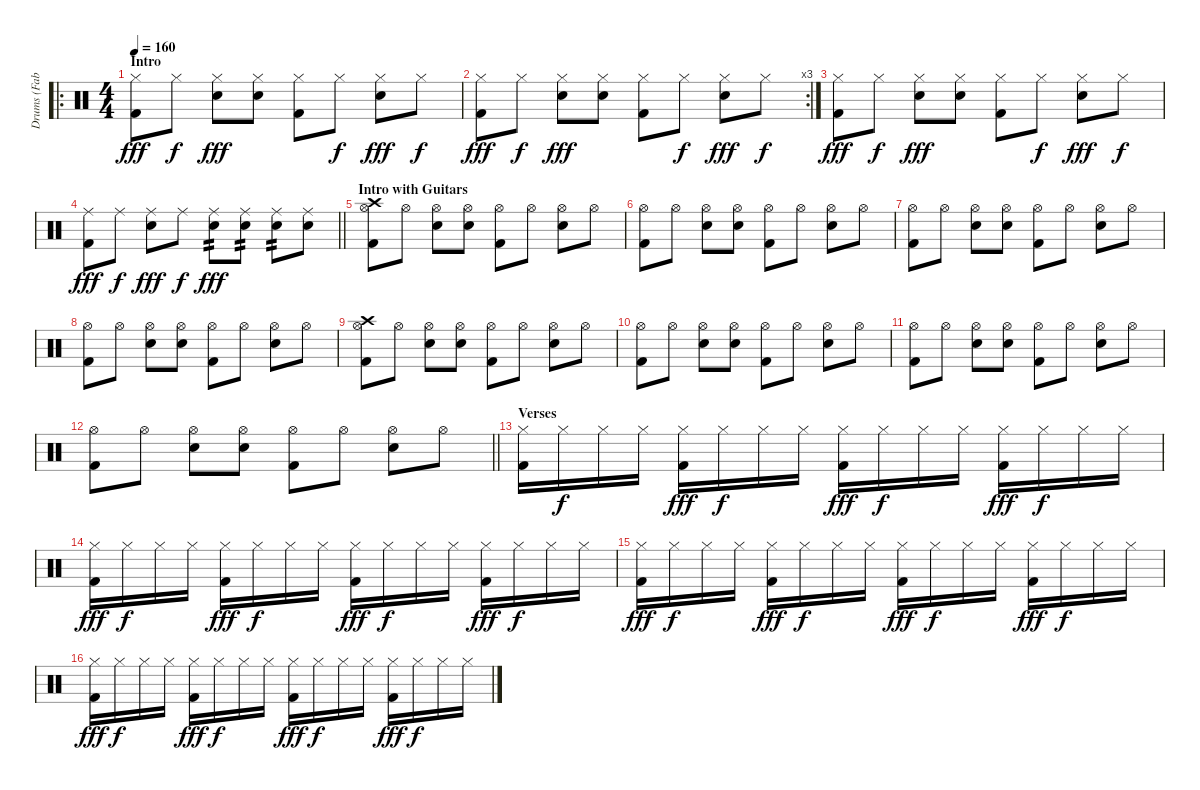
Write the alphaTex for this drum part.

\track ("Drums (Fabrizio Moretti)" "Drums (Fab") {instrument percussion}
\staff {score}
\articulation defaults
\ro
\ts (4 4)
\section ("" "Intro")
\tempo 160
\clef neutral
\ks c
("Kick (hit) 2" "Hi-Hat (closed)").8{dy fff} "Hi-Hat (closed)".8{dy f} ("Electric Snare (hit)" "Hi-Hat (closed)").8{dy fff} ("Electric Snare (hit)" "Hi-Hat (closed)").8 ("Kick (hit) 2" "Hi-Hat (closed)").8 "Hi-Hat (closed)".8{dy f} ("Electric Snare (hit)" "Hi-Hat (closed)").8{dy fff} "Hi-Hat (closed)".8{dy f} |
\rc 3
("Kick (hit) 2" "Hi-Hat (closed)").8{dy fff} "Hi-Hat (closed)".8{dy f} ("Electric Snare (hit)" "Hi-Hat (closed)").8{dy fff} ("Electric Snare (hit)" "Hi-Hat (closed)").8 ("Kick (hit) 2" "Hi-Hat (closed)").8 "Hi-Hat (closed)".8{dy f} ("Electric Snare (hit)" "Hi-Hat (closed)").8{dy fff} "Hi-Hat (closed)".8{dy f} |
("Kick (hit) 2" "Hi-Hat (closed)").8{dy fff} "Hi-Hat (closed)".8{dy f} ("Electric Snare (hit)" "Hi-Hat (closed)").8{dy fff} ("Electric Snare (hit)" "Hi-Hat (closed)").8 ("Kick (hit) 2" "Hi-Hat (closed)").8 "Hi-Hat (closed)".8{dy f} ("Electric Snare (hit)" "Hi-Hat (closed)").8{dy fff} "Hi-Hat (closed)".8{dy f} |
\barLineRight lightlight
("Kick (hit) 2" "Ride (middle)").8{dy fff} "Ride (middle)".8{dy f} ("Electric Snare (hit)" "Ride (middle)").8{dy fff} "Ride (middle)".8{dy f} ("Electric Snare (hit)" "Ride (middle)").8{tp 2 dy fff} ("Electric Snare (hit)" "Ride (middle)").8{tp 2} ("Electric Snare (hit)" "Ride (middle)").8{tp 2} ("Electric Snare (hit)" "Ride (middle)").8 |
\section ("" "Intro with Guitars")
("Kick (hit) 2" "Hi-Hat (open)" "Crash high (hit)").8 "Hi-Hat (open)".8 ("Electric Snare (hit)" "Hi-Hat (open)").8 ("Electric Snare (hit)" "Hi-Hat (open)").8 ("Kick (hit) 2" "Hi-Hat (open)").8 "Hi-Hat (open)".8 ("Electric Snare (hit)" "Hi-Hat (open)").8 "Hi-Hat (open)".8 |
("Kick (hit) 2" "Hi-Hat (open)").8 "Hi-Hat (open)".8 ("Electric Snare (hit)" "Hi-Hat (open)").8 ("Electric Snare (hit)" "Hi-Hat (open)").8 ("Kick (hit) 2" "Hi-Hat (open)").8 "Hi-Hat (open)".8 ("Electric Snare (hit)" "Hi-Hat (open)").8 "Hi-Hat (open)".8 |
("Kick (hit) 2" "Hi-Hat (open)").8 "Hi-Hat (open)".8 ("Electric Snare (hit)" "Hi-Hat (open)").8 ("Electric Snare (hit)" "Hi-Hat (open)").8 ("Kick (hit) 2" "Hi-Hat (open)").8 "Hi-Hat (open)".8 ("Electric Snare (hit)" "Hi-Hat (open)").8 "Hi-Hat (open)".8 |
("Kick (hit) 2" "Hi-Hat (open)").8 "Hi-Hat (open)".8 ("Electric Snare (hit)" "Hi-Hat (open)").8 ("Electric Snare (hit)" "Hi-Hat (open)").8 ("Kick (hit) 2" "Hi-Hat (open)").8 "Hi-Hat (open)".8 ("Electric Snare (hit)" "Hi-Hat (open)").8 "Hi-Hat (open)".8 |
("Kick (hit) 2" "Hi-Hat (open)" "Crash high (hit)").8 "Hi-Hat (open)".8 ("Electric Snare (hit)" "Hi-Hat (open)").8 ("Electric Snare (hit)" "Hi-Hat (open)").8 ("Kick (hit) 2" "Hi-Hat (open)").8 "Hi-Hat (open)".8 ("Electric Snare (hit)" "Hi-Hat (open)").8 "Hi-Hat (open)".8 |
("Kick (hit) 2" "Hi-Hat (open)").8 "Hi-Hat (open)".8 ("Electric Snare (hit)" "Hi-Hat (open)").8 ("Electric Snare (hit)" "Hi-Hat (open)").8 ("Kick (hit) 2" "Hi-Hat (open)").8 "Hi-Hat (open)".8 ("Electric Snare (hit)" "Hi-Hat (open)").8 "Hi-Hat (open)".8 |
("Kick (hit) 2" "Hi-Hat (open)").8 "Hi-Hat (open)".8 ("Electric Snare (hit)" "Hi-Hat (open)").8 ("Electric Snare (hit)" "Hi-Hat (open)").8 ("Kick (hit) 2" "Hi-Hat (open)").8 "Hi-Hat (open)".8 ("Electric Snare (hit)" "Hi-Hat (open)").8 "Hi-Hat (open)".8 |
\barLineRight lightlight
("Kick (hit) 2" "Hi-Hat (open)").8 "Hi-Hat (open)".8 ("Electric Snare (hit)" "Hi-Hat (open)").8 ("Electric Snare (hit)" "Hi-Hat (open)").8 ("Kick (hit) 2" "Hi-Hat (open)").8 "Hi-Hat (open)".8 ("Electric Snare (hit)" "Hi-Hat (open)").8 "Hi-Hat (open)".8 |
\section ("" "Verses")
("Kick (hit) 2" "Hi-Hat (closed)").16 "Hi-Hat (closed)".16{dy f} "Hi-Hat (closed)".16 "Hi-Hat (closed)".16 ("Kick (hit) 2" "Hi-Hat (closed)").16{dy fff} "Hi-Hat (closed)".16{dy f} "Hi-Hat (closed)".16 "Hi-Hat (closed)".16 ("Kick (hit) 2" "Hi-Hat (closed)").16{dy fff} "Hi-Hat (closed)".16{dy f} "Hi-Hat (closed)".16 "Hi-Hat (closed)".16 ("Kick (hit) 2" "Hi-Hat (closed)").16{dy fff} "Hi-Hat (closed)".16{dy f} "Hi-Hat (closed)".16 "Hi-Hat (closed)".16 |
("Kick (hit) 2" "Hi-Hat (closed)").16{dy fff} "Hi-Hat (closed)".16{dy f} "Hi-Hat (closed)".16 "Hi-Hat (closed)".16 ("Kick (hit) 2" "Hi-Hat (closed)").16{dy fff} "Hi-Hat (closed)".16{dy f} "Hi-Hat (closed)".16 "Hi-Hat (closed)".16 ("Kick (hit) 2" "Hi-Hat (closed)").16{dy fff} "Hi-Hat (closed)".16{dy f} "Hi-Hat (closed)".16 "Hi-Hat (closed)".16 ("Kick (hit) 2" "Hi-Hat (closed)").16{dy fff} "Hi-Hat (closed)".16{dy f} "Hi-Hat (closed)".16 "Hi-Hat (closed)".16 |
("Kick (hit) 2" "Hi-Hat (closed)").16{dy fff} "Hi-Hat (closed)".16{dy f} "Hi-Hat (closed)".16 "Hi-Hat (closed)".16 ("Kick (hit) 2" "Hi-Hat (closed)").16{dy fff} "Hi-Hat (closed)".16{dy f} "Hi-Hat (closed)".16 "Hi-Hat (closed)".16 ("Kick (hit) 2" "Hi-Hat (closed)").16{dy fff} "Hi-Hat (closed)".16{dy f} "Hi-Hat (closed)".16 "Hi-Hat (closed)".16 ("Kick (hit) 2" "Hi-Hat (closed)").16{dy fff} "Hi-Hat (closed)".16{dy f} "Hi-Hat (closed)".16 "Hi-Hat (closed)".16 |
("Kick (hit) 2" "Hi-Hat (closed)").16{dy fff} "Hi-Hat (closed)".16{dy f} "Hi-Hat (closed)".16 "Hi-Hat (closed)".16 ("Kick (hit) 2" "Hi-Hat (closed)").16{dy fff} "Hi-Hat (closed)".16{dy f} "Hi-Hat (closed)".16 "Hi-Hat (closed)".16 ("Kick (hit) 2" "Hi-Hat (closed)").16{dy fff} "Hi-Hat (closed)".16{dy f} "Hi-Hat (closed)".16 "Hi-Hat (closed)".16 ("Kick (hit) 2" "Hi-Hat (closed)").16{dy fff} "Hi-Hat (closed)".16{dy f} "Hi-Hat (closed)".16 "Hi-Hat (closed)".16
